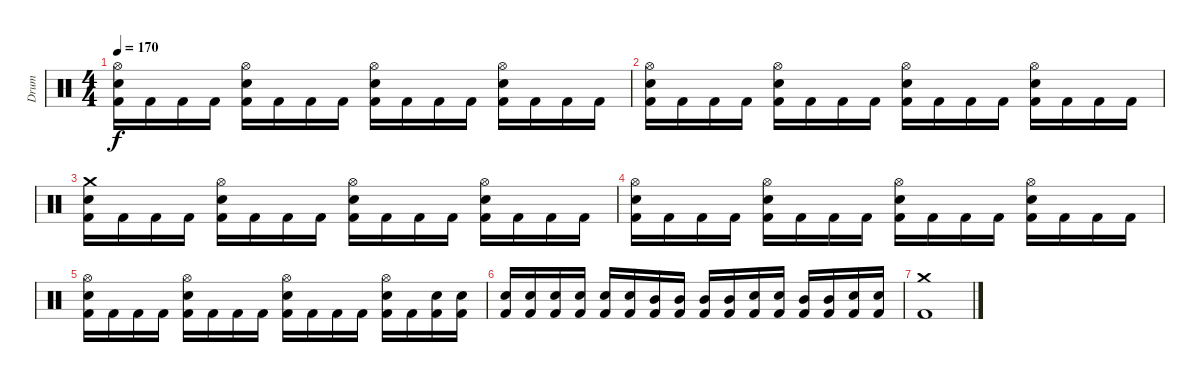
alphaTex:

\track ("Drum" "Drum") {instrument percussion}
\staff
\articulation defaults
\ts (4 4)
\tempo 170
\clef neutral
\ks c
("Hi-Hat (open)" "Electric Snare (hit)" "Kick (hit) 2").16{dy f} "Kick (hit) 2".16 "Kick (hit) 2".16 "Kick (hit) 2".16 ("Hi-Hat (open)" "Electric Snare (hit)" "Kick (hit) 2").16 "Kick (hit) 2".16 "Kick (hit) 2".16 "Kick (hit) 2".16 ("Hi-Hat (open)" "Electric Snare (hit)" "Kick (hit) 2").16 "Kick (hit) 2".16 "Kick (hit) 2".16 "Kick (hit) 2".16 ("Hi-Hat (open)" "Electric Snare (hit)" "Kick (hit) 2").16 "Kick (hit) 2".16 "Kick (hit) 2".16 "Kick (hit) 2".16 |
("Hi-Hat (open)" "Electric Snare (hit)" "Kick (hit) 2").16 "Kick (hit) 2".16 "Kick (hit) 2".16 "Kick (hit) 2".16 ("Hi-Hat (open)" "Electric Snare (hit)" "Kick (hit) 2").16 "Kick (hit) 2".16 "Kick (hit) 2".16 "Kick (hit) 2".16 ("Hi-Hat (open)" "Electric Snare (hit)" "Kick (hit) 2").16 "Kick (hit) 2".16 "Kick (hit) 2".16 "Kick (hit) 2".16 ("Hi-Hat (open)" "Electric Snare (hit)" "Kick (hit) 2").16 "Kick (hit) 2".16 "Kick (hit) 2".16 "Kick (hit) 2".16 |
("Crash medium (hit)" "Electric Snare (hit)" "Kick (hit) 2").16 "Kick (hit) 2".16 "Kick (hit) 2".16 "Kick (hit) 2".16 ("Hi-Hat (open)" "Electric Snare (hit)" "Kick (hit) 2").16 "Kick (hit) 2".16 "Kick (hit) 2".16 "Kick (hit) 2".16 ("Hi-Hat (open)" "Electric Snare (hit)" "Kick (hit) 2").16 "Kick (hit) 2".16 "Kick (hit) 2".16 "Kick (hit) 2".16 ("Hi-Hat (open)" "Electric Snare (hit)" "Kick (hit) 2").16 "Kick (hit) 2".16 "Kick (hit) 2".16 "Kick (hit) 2".16 |
("Hi-Hat (open)" "Electric Snare (hit)" "Kick (hit) 2").16 "Kick (hit) 2".16 "Kick (hit) 2".16 "Kick (hit) 2".16 ("Hi-Hat (open)" "Electric Snare (hit)" "Kick (hit) 2").16 "Kick (hit) 2".16 "Kick (hit) 2".16 "Kick (hit) 2".16 ("Hi-Hat (open)" "Electric Snare (hit)" "Kick (hit) 2").16 "Kick (hit) 2".16 "Kick (hit) 2".16 "Kick (hit) 2".16 ("Hi-Hat (open)" "Electric Snare (hit)" "Kick (hit) 2").16 "Kick (hit) 2".16 "Kick (hit) 2".16 "Kick (hit) 2".16 |
("Hi-Hat (open)" "Electric Snare (hit)" "Kick (hit) 2").16 "Kick (hit) 2".16 "Kick (hit) 2".16 "Kick (hit) 2".16 ("Hi-Hat (open)" "Electric Snare (hit)" "Kick (hit) 2").16 "Kick (hit) 2".16 "Kick (hit) 2".16 "Kick (hit) 2".16 ("Hi-Hat (open)" "Electric Snare (hit)" "Kick (hit) 2").16 "Kick (hit) 2".16 "Kick (hit) 2".16 "Kick (hit) 2".16 ("Hi-Hat (open)" "Electric Snare (hit)" "Kick (hit) 2").16 "Kick (hit) 2".16 ("Electric Snare (hit)" "Kick (hit) 2").16 ("Electric Snare (hit)" "Kick (hit) 2").16 |
("Electric Snare (hit)" "Kick (hit) 2").16 ("Electric Snare (hit)" "Kick (hit) 2").16 ("Electric Snare (hit)" "Kick (hit) 2").16 ("Electric Snare (hit)" "Kick (hit) 2").16 ("Electric Snare (hit)" "Kick (hit) 2").16 ("Electric Snare (hit)" "Kick (hit) 2").16 ("Mid Tom (hit)" "Kick (hit) 2").16 ("Mid Tom (hit)" "Kick (hit) 2").16 ("Mid Tom (hit)" "Kick (hit) 2").16 ("Mid Tom (hit)" "Kick (hit) 2").16 ("Electric Snare (hit)" "Kick (hit) 2").16 ("Electric Snare (hit)" "Kick (hit) 2").16 ("Mid Tom (hit)" "Kick (hit) 2").16 ("Mid Tom (hit)" "Kick (hit) 2").16 ("Electric Snare (hit)" "Kick (hit) 2").16 ("Electric Snare (hit)" "Kick (hit) 2").16 |
("Crash medium (hit)" "Kick (hit) 2").1
